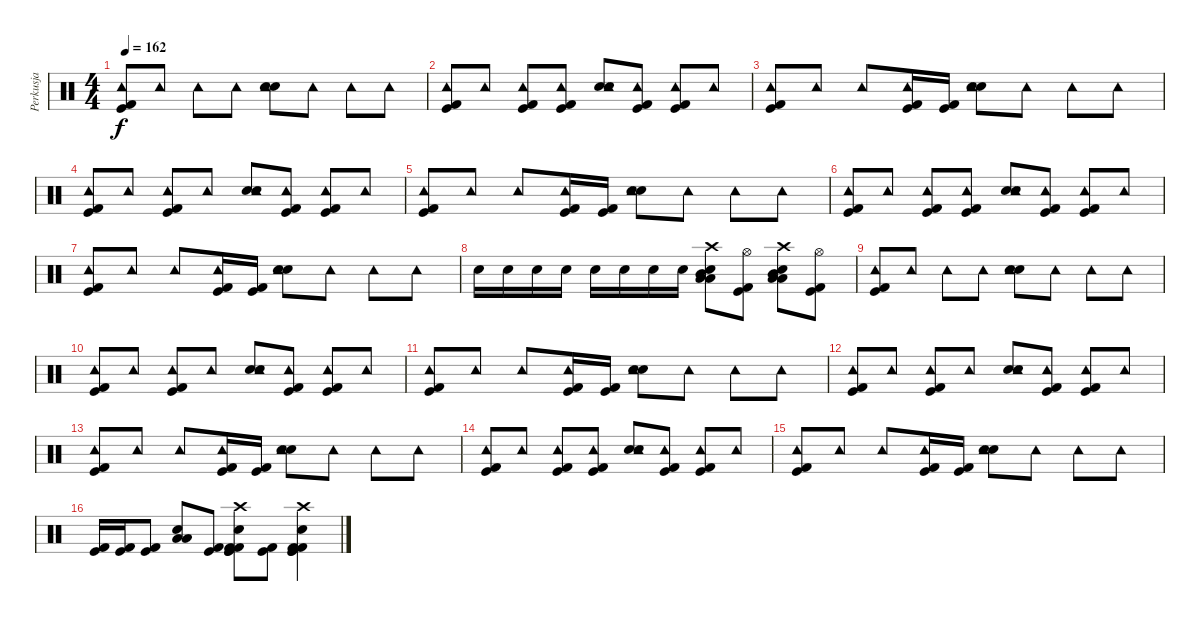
\track ("Perkusja" "Perkusja") {instrument percussion}
\staff {score}
\articulation defaults
\ts (4 4)
\tempo 162
\clef neutral
\ks c
("Tambourine (hit)" "Kick (hit) 2" "Kick (hit)").8{dy f} "Tambourine (hit)".8 "Tambourine (hit)".8 "Tambourine (hit)".8 ("Snare (hit) 2" "Snare (hit) 2" "Tambourine (hit)").8 "Tambourine (hit)".8 "Tambourine (hit)".8 "Tambourine (hit)".8 |
("Tambourine (hit)" "Kick (hit) 2" "Kick (hit)").8 "Tambourine (hit)".8 ("Tambourine (hit)" "Kick (hit) 2" "Kick (hit)").8 ("Tambourine (hit)" "Kick (hit) 2" "Kick (hit)").8 ("Snare (hit) 2" "Snare (hit) 2" "Tambourine (hit)").8 ("Tambourine (hit)" "Kick (hit) 2" "Kick (hit)").8 ("Tambourine (hit)" "Kick (hit) 2" "Kick (hit)").8 "Tambourine (hit)".8 |
("Tambourine (hit)" "Kick (hit) 2" "Kick (hit)").8 "Tambourine (hit)".8 "Tambourine (hit)".8 ("Tambourine (hit)" "Kick (hit) 2" "Kick (hit)").16 ("Kick (hit) 2" "Kick (hit)").16 ("Snare (hit) 2" "Snare (hit) 2" "Tambourine (hit)").8 "Tambourine (hit)".8 "Tambourine (hit)".8 "Tambourine (hit)".8 |
("Tambourine (hit)" "Kick (hit) 2" "Kick (hit)").8 "Tambourine (hit)".8 ("Tambourine (hit)" "Kick (hit) 2" "Kick (hit)").8 "Tambourine (hit)".8 ("Snare (hit) 2" "Snare (hit) 2" "Tambourine (hit)").8 ("Tambourine (hit)" "Kick (hit) 2" "Kick (hit)").8 ("Tambourine (hit)" "Kick (hit) 2" "Kick (hit)").8 "Tambourine (hit)".8 |
("Tambourine (hit)" "Kick (hit) 2" "Kick (hit)").8 "Tambourine (hit)".8 "Tambourine (hit)".8 ("Tambourine (hit)" "Kick (hit) 2" "Kick (hit)").16 ("Kick (hit) 2" "Kick (hit)").16 ("Snare (hit) 2" "Snare (hit) 2" "Tambourine (hit)").8 "Tambourine (hit)".8 "Tambourine (hit)".8 "Tambourine (hit)".8 |
("Tambourine (hit)" "Kick (hit) 2" "Kick (hit)").8 "Tambourine (hit)".8 ("Tambourine (hit)" "Kick (hit) 2" "Kick (hit)").8 ("Tambourine (hit)" "Kick (hit) 2" "Kick (hit)").8 ("Snare (hit) 2" "Snare (hit) 2" "Tambourine (hit)").8 ("Tambourine (hit)" "Kick (hit) 2" "Kick (hit)").8 ("Tambourine (hit)" "Kick (hit) 2" "Kick (hit)").8 "Tambourine (hit)".8 |
("Tambourine (hit)" "Kick (hit) 2" "Kick (hit)").8 "Tambourine (hit)".8 "Tambourine (hit)".8 ("Tambourine (hit)" "Kick (hit) 2" "Kick (hit)").16 ("Kick (hit) 2" "Kick (hit)").16 ("Snare (hit) 2" "Snare (hit) 2" "Tambourine (hit)").8 "Tambourine (hit)".8 "Tambourine (hit)".8 "Tambourine (hit)".8 |
"Snare (hit) 2".16 "Snare (hit) 2".16 "Snare (hit) 2".16 "Snare (hit) 2".16 "Snare (hit) 2".16 "Snare (hit) 2".16 "Snare (hit) 2".16 "Snare (hit) 2".16 ("Crash high (hit)" "Snare (hit) 2" "Low Tom (hit)" "Low Tom (hit)" "Mid Tom (hit)").8 ("Hi-Hat (open)" "Kick (hit) 2" "Kick (hit)").8 ("Crash high (hit)" "Snare (hit) 2" "Low Tom (hit)" "Low Tom (hit)" "Mid Tom (hit)").8 ("Hi-Hat (open)" "Kick (hit) 2" "Kick (hit)").8 |
("Tambourine (hit)" "Kick (hit) 2" "Kick (hit)").8 "Tambourine (hit)".8 "Tambourine (hit)".8 "Tambourine (hit)".8 ("Snare (hit) 2" "Snare (hit) 2" "Tambourine (hit)").8 "Tambourine (hit)".8 "Tambourine (hit)".8 "Tambourine (hit)".8 |
("Tambourine (hit)" "Kick (hit) 2" "Kick (hit)").8 "Tambourine (hit)".8 ("Tambourine (hit)" "Kick (hit) 2" "Kick (hit)").8 "Tambourine (hit)".8 ("Snare (hit) 2" "Snare (hit) 2" "Tambourine (hit)").8 ("Tambourine (hit)" "Kick (hit) 2" "Kick (hit)").8 ("Tambourine (hit)" "Kick (hit) 2" "Kick (hit)").8 "Tambourine (hit)".8 |
("Tambourine (hit)" "Kick (hit) 2" "Kick (hit)").8 "Tambourine (hit)".8 "Tambourine (hit)".8 ("Tambourine (hit)" "Kick (hit) 2" "Kick (hit)").16 ("Kick (hit) 2" "Kick (hit)").16 ("Snare (hit) 2" "Snare (hit) 2" "Tambourine (hit)").8 "Tambourine (hit)".8 "Tambourine (hit)".8 "Tambourine (hit)".8 |
("Tambourine (hit)" "Kick (hit) 2" "Kick (hit)").8 "Tambourine (hit)".8 ("Tambourine (hit)" "Kick (hit) 2" "Kick (hit)").8 "Tambourine (hit)".8 ("Snare (hit) 2" "Snare (hit) 2" "Tambourine (hit)").8 ("Tambourine (hit)" "Kick (hit) 2" "Kick (hit)").8 ("Tambourine (hit)" "Kick (hit) 2" "Kick (hit)").8 "Tambourine (hit)".8 |
("Tambourine (hit)" "Kick (hit) 2" "Kick (hit)").8 "Tambourine (hit)".8 "Tambourine (hit)".8 ("Tambourine (hit)" "Kick (hit) 2" "Kick (hit)").16 ("Kick (hit) 2" "Kick (hit)").16 ("Snare (hit) 2" "Snare (hit) 2" "Tambourine (hit)").8 "Tambourine (hit)".8 "Tambourine (hit)".8 "Tambourine (hit)".8 |
("Tambourine (hit)" "Kick (hit) 2" "Kick (hit)").8 "Tambourine (hit)".8 ("Tambourine (hit)" "Kick (hit) 2" "Kick (hit)").8 ("Tambourine (hit)" "Kick (hit) 2" "Kick (hit)").8 ("Snare (hit) 2" "Snare (hit) 2" "Tambourine (hit)").8 ("Tambourine (hit)" "Kick (hit) 2" "Kick (hit)").8 ("Tambourine (hit)" "Kick (hit) 2" "Kick (hit)").8 "Tambourine (hit)".8 |
("Tambourine (hit)" "Kick (hit) 2" "Kick (hit)").8 "Tambourine (hit)".8 "Tambourine (hit)".8 ("Tambourine (hit)" "Kick (hit) 2" "Kick (hit)").16 ("Kick (hit) 2" "Kick (hit)").16 ("Snare (hit) 2" "Snare (hit) 2" "Tambourine (hit)").8 "Tambourine (hit)".8 "Tambourine (hit)".8 "Tambourine (hit)".8 |
("Kick (hit) 2" "Kick (hit)").16 ("Kick (hit) 2" "Kick (hit)").16 ("Kick (hit) 2" "Kick (hit)").8 ("Snare (hit) 2" "Low Tom (hit)" "Low Tom (hit)").8 ("Kick (hit) 2" "Kick (hit)").8 ("Crash high (hit)" "Kick (hit) 2" "Snare (hit) 2" "Kick (hit)" "Kick (hit)" "Kick (hit) 2").8 ("Kick (hit)" "Kick (hit) 2").8 ("Crash high (hit)" "Kick (hit) 2" "Snare (hit) 2" "Kick (hit)" "Kick (hit)" "Kick (hit) 2").4
